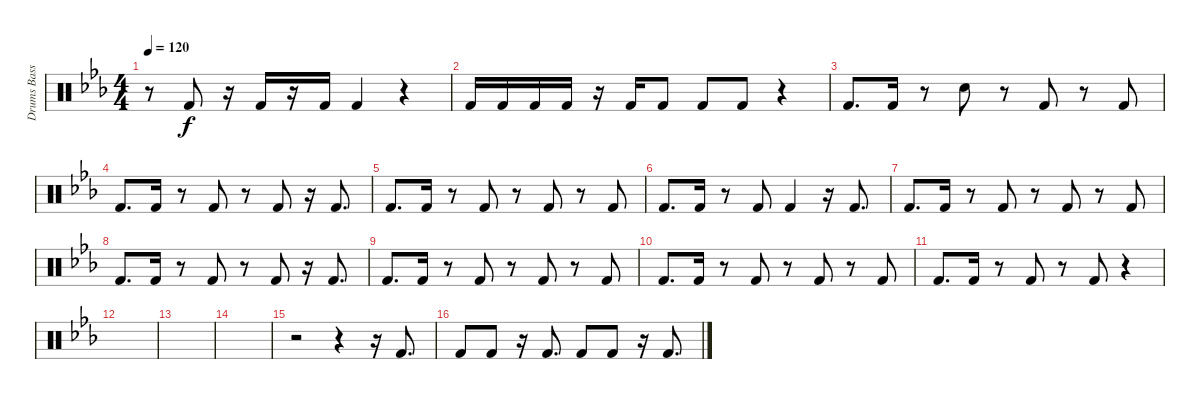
\track ("Drums Bass" "Drums Bass") {instrument percussion}
\staff {score}
\articulation defaults
\ts (4 4)
\tempo 120
\clef neutral
\ks eb
r.8{dy f} "Kick (hit) 2".8 r.16 "Kick (hit) 2".16 r.16 "Kick (hit) 2".16 "Kick (hit) 2".4 r.4 |
"Kick (hit) 2".16 "Kick (hit) 2".16 "Kick (hit) 2".16 "Kick (hit) 2".16 r.16 "Kick (hit) 2".16 "Kick (hit) 2".8 "Kick (hit) 2".8 "Kick (hit) 2".8 r.4 |
"Kick (hit) 2".8{d} "Kick (hit) 2".16 r.8 "Snare (hit)".8 r.8 "Kick (hit) 2".8 r.8 "Kick (hit) 2".8 |
"Kick (hit) 2".8{d} "Kick (hit) 2".16 r.8 "Kick (hit) 2".8 r.8 "Kick (hit) 2".8 r.16 "Kick (hit) 2".8{d} |
"Kick (hit) 2".8{d} "Kick (hit) 2".16 r.8 "Kick (hit) 2".8 r.8 "Kick (hit) 2".8 r.8 "Kick (hit) 2".8 |
"Kick (hit) 2".8{d} "Kick (hit) 2".16 r.8 "Kick (hit) 2".8 "Kick (hit) 2".4 r.16 "Kick (hit) 2".8{d} |
"Kick (hit) 2".8{d} "Kick (hit) 2".16 r.8 "Kick (hit) 2".8 r.8 "Kick (hit) 2".8 r.8 "Kick (hit) 2".8 |
"Kick (hit) 2".8{d} "Kick (hit) 2".16 r.8 "Kick (hit) 2".8 r.8 "Kick (hit) 2".8 r.16 "Kick (hit) 2".8{d} |
"Kick (hit) 2".8{d} "Kick (hit) 2".16 r.8 "Kick (hit) 2".8 r.8 "Kick (hit) 2".8 r.8 "Kick (hit) 2".8 |
"Kick (hit) 2".8{d} "Kick (hit) 2".16 r.8 "Kick (hit) 2".8 r.8 "Kick (hit) 2".8 r.8 "Kick (hit) 2".8 |
"Kick (hit) 2".8{d} "Kick (hit) 2".16 r.8 "Kick (hit) 2".8 r.8 "Kick (hit) 2".8 r.4 |
|
|
|
r.2 r.4 r.16 "Kick (hit) 2".8{d} |
"Kick (hit) 2".8 "Kick (hit) 2".8 r.16 "Kick (hit) 2".8{d} "Kick (hit) 2".8 "Kick (hit) 2".8 r.16 "Kick (hit) 2".8{d}
